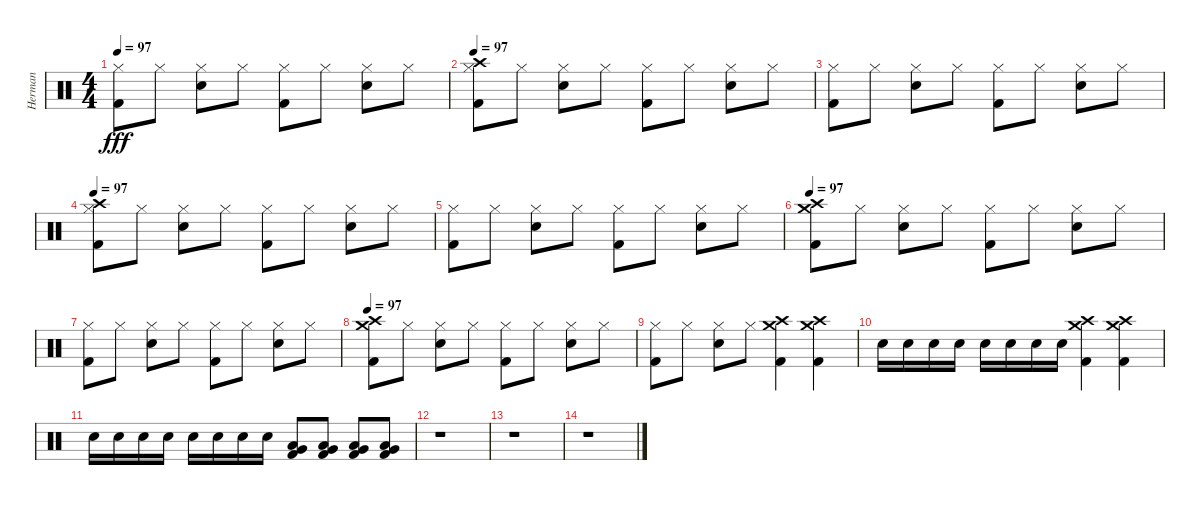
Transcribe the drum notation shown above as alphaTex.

\track ("Herman" "Herman") {instrument percussion}
\staff {score}
\articulation defaults
\ts (4 4)
\tempo 97
\clef neutral
\ks c
("Hi-Hat (closed)" "Kick (hit) 2").8{dy fff} "Hi-Hat (closed)".8 ("Hi-Hat (closed)" "Snare (hit) 2").8 "Hi-Hat (closed)".8 ("Hi-Hat (closed)" "Kick (hit) 2").8 "Hi-Hat (closed)".8 ("Hi-Hat (closed)" "Snare (hit) 2").8 "Hi-Hat (closed)".8 |
\tempo 97
("Crash high (hit)" "Hi-Hat (closed)" "Kick (hit) 2").8 "Hi-Hat (closed)".8 ("Hi-Hat (closed)" "Snare (hit) 2").8 "Hi-Hat (closed)".8 ("Hi-Hat (closed)" "Kick (hit) 2").8 "Hi-Hat (closed)".8 ("Hi-Hat (closed)" "Snare (hit) 2").8 "Hi-Hat (closed)".8 |
("Hi-Hat (closed)" "Kick (hit) 2").8 "Hi-Hat (closed)".8 ("Hi-Hat (closed)" "Snare (hit) 2").8 "Hi-Hat (closed)".8 ("Hi-Hat (closed)" "Kick (hit) 2").8 "Hi-Hat (closed)".8 ("Hi-Hat (closed)" "Snare (hit) 2").8 "Hi-Hat (closed)".8 |
\tempo 97
("Crash high (hit)" "Hi-Hat (closed)" "Kick (hit) 2").8 "Hi-Hat (closed)".8 ("Hi-Hat (closed)" "Snare (hit) 2").8 "Hi-Hat (closed)".8 ("Hi-Hat (closed)" "Kick (hit) 2").8 "Hi-Hat (closed)".8 ("Hi-Hat (closed)" "Snare (hit) 2").8 "Hi-Hat (closed)".8 |
("Hi-Hat (closed)" "Kick (hit) 2").8 "Hi-Hat (closed)".8 ("Hi-Hat (closed)" "Snare (hit) 2").8 "Hi-Hat (closed)".8 ("Hi-Hat (closed)" "Kick (hit) 2").8 "Hi-Hat (closed)".8 ("Hi-Hat (closed)" "Snare (hit) 2").8 "Hi-Hat (closed)".8 |
\tempo 97
("Crash high (hit)" "Crash medium (hit)" "Kick (hit) 2").8 "Hi-Hat (closed)".8 ("Hi-Hat (closed)" "Snare (hit) 2").8 "Hi-Hat (closed)".8 ("Hi-Hat (closed)" "Kick (hit) 2").8 "Hi-Hat (closed)".8 ("Hi-Hat (closed)" "Snare (hit) 2").8 "Hi-Hat (closed)".8 |
("Hi-Hat (closed)" "Kick (hit) 2").8 "Hi-Hat (closed)".8 ("Hi-Hat (closed)" "Snare (hit) 2").8 "Hi-Hat (closed)".8 ("Hi-Hat (closed)" "Kick (hit) 2").8 "Hi-Hat (closed)".8 ("Hi-Hat (closed)" "Snare (hit) 2").8 "Hi-Hat (closed)".8 |
\tempo 97
("Crash high (hit)" "Crash medium (hit)" "Kick (hit) 2").8 "Hi-Hat (closed)".8 ("Hi-Hat (closed)" "Snare (hit) 2").8 "Hi-Hat (closed)".8 ("Hi-Hat (closed)" "Kick (hit) 2").8 "Hi-Hat (closed)".8 ("Hi-Hat (closed)" "Snare (hit) 2").8 "Hi-Hat (closed)".8 |
("Hi-Hat (closed)" "Kick (hit) 2").8 "Hi-Hat (closed)".8 ("Hi-Hat (closed)" "Snare (hit) 2").8 "Hi-Hat (closed)".8 ("Crash high (hit)" "Crash medium (hit)" "Kick (hit) 2").4 ("Crash high (hit)" "Crash medium (hit)" "Kick (hit) 2").4 |
"Snare (hit) 2".16 "Snare (hit) 2".16 "Snare (hit) 2".16 "Snare (hit) 2".16 "Snare (hit) 2".16 "Snare (hit) 2".16 "Snare (hit) 2".16 "Snare (hit) 2".16 ("Crash high (hit)" "Crash medium (hit)" "Kick (hit) 2").4 ("Crash high (hit)" "Crash medium (hit)" "Kick (hit) 2").4 |
"Snare (hit) 2".16 "Snare (hit) 2".16 "Snare (hit) 2".16 "Snare (hit) 2".16 "Snare (hit) 2".16 "Snare (hit) 2".16 "Snare (hit) 2".16 "Snare (hit) 2".16 ("Low Floor Tom (hit)" "Very Low Tom (hit)" "Kick (hit) 2").8 ("Low Floor Tom (hit)" "Very Low Tom (hit)" "Kick (hit) 2").8 ("Low Floor Tom (hit)" "Very Low Tom (hit)" "Kick (hit) 2").8 ("Low Floor Tom (hit)" "Very Low Tom (hit)" "Kick (hit) 2").8 |
r.1 |
r.1 |
r.1
